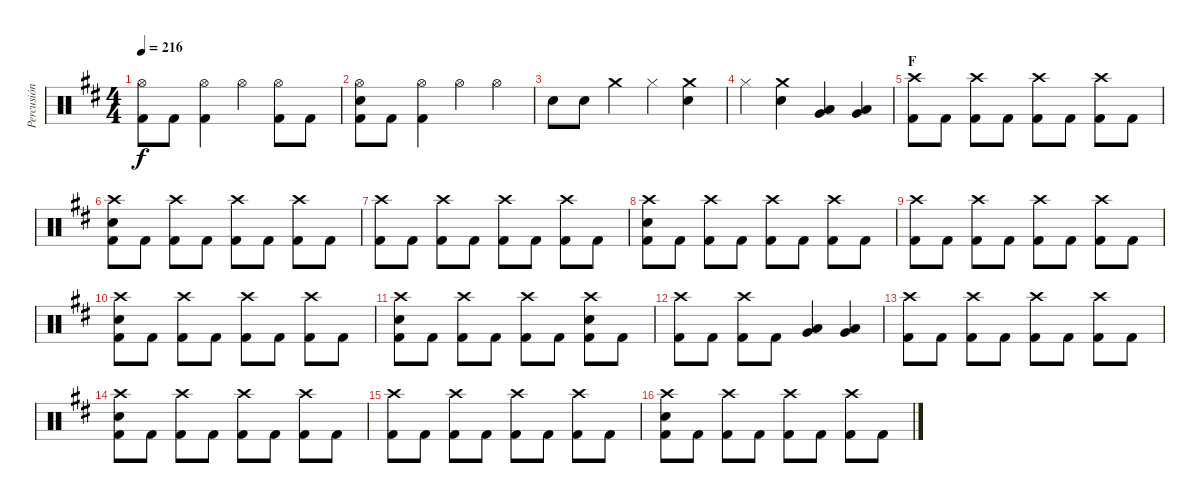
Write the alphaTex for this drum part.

\track ("Percusión" "Percusión") {instrument percussion}
\staff {score}
\articulation defaults
\ts (4 4)
\tempo 216
\clef neutral
\ks d
("Hi-Hat (open)" "Kick (hit) 2").8{dy f} "Kick (hit) 2".8 ("Hi-Hat (open)" "Kick (hit) 2").4 "Hi-Hat (open)".4 ("Hi-Hat (open)" "Kick (hit) 2").8 "Kick (hit) 2".8 |
("Hi-Hat (open)" "Electric Snare (hit)" "Kick (hit) 2").8 "Kick (hit) 2".8 ("Hi-Hat (open)" "Kick (hit) 2").4 "Hi-Hat (open)".4 "Hi-Hat (open)".4 |
"Electric Snare (hit)".8 "Electric Snare (hit)".8 "Crash medium (hit)".4 "Hi-Hat (closed)".4 ("Crash medium (hit)" "Electric Snare (hit)").4 |
"Hi-Hat (closed)".4 ("Crash medium (hit)" "Electric Snare (hit)").4 ("Low Tom (hit)" "Very Low Tom (hit)").4 ("Low Tom (hit)" "Very Low Tom (hit)").4 |
\section ("" "F")
("Crash high (hit)" "Kick (hit) 2").8 "Kick (hit) 2".8 ("Crash high (hit)" "Kick (hit) 2").8 "Kick (hit) 2".8 ("Crash high (hit)" "Kick (hit) 2").8 "Kick (hit) 2".8 ("Crash high (hit)" "Kick (hit) 2").8 "Kick (hit) 2".8 |
("Crash high (hit)" "Electric Snare (hit)" "Kick (hit) 2").8 "Kick (hit) 2".8 ("Crash high (hit)" "Kick (hit) 2").8 "Kick (hit) 2".8 ("Crash high (hit)" "Kick (hit) 2").8 "Kick (hit) 2".8 ("Crash high (hit)" "Kick (hit) 2").8 "Kick (hit) 2".8 |
("Crash high (hit)" "Kick (hit) 2").8 "Kick (hit) 2".8 ("Crash high (hit)" "Kick (hit) 2").8 "Kick (hit) 2".8 ("Crash high (hit)" "Kick (hit) 2").8 "Kick (hit) 2".8 ("Crash high (hit)" "Kick (hit) 2").8 "Kick (hit) 2".8 |
("Crash high (hit)" "Electric Snare (hit)" "Kick (hit) 2").8 "Kick (hit) 2".8 ("Crash high (hit)" "Kick (hit) 2").8 "Kick (hit) 2".8 ("Crash high (hit)" "Kick (hit) 2").8 "Kick (hit) 2".8 ("Crash high (hit)" "Kick (hit) 2").8 "Kick (hit) 2".8 |
("Crash high (hit)" "Kick (hit) 2").8 "Kick (hit) 2".8 ("Crash high (hit)" "Kick (hit) 2").8 "Kick (hit) 2".8 ("Crash high (hit)" "Kick (hit) 2").8 "Kick (hit) 2".8 ("Crash high (hit)" "Kick (hit) 2").8 "Kick (hit) 2".8 |
("Crash high (hit)" "Electric Snare (hit)" "Kick (hit) 2").8 "Kick (hit) 2".8 ("Crash high (hit)" "Kick (hit) 2").8 "Kick (hit) 2".8 ("Crash high (hit)" "Kick (hit) 2").8 "Kick (hit) 2".8 ("Crash high (hit)" "Kick (hit) 2").8 "Kick (hit) 2".8 |
("Crash high (hit)" "Electric Snare (hit)" "Kick (hit) 2").8 "Kick (hit) 2".8 ("Crash high (hit)" "Kick (hit) 2").8 "Kick (hit) 2".8 ("Crash high (hit)" "Kick (hit) 2").8 "Kick (hit) 2".8 ("Crash high (hit)" "Electric Snare (hit)" "Kick (hit) 2").8 "Kick (hit) 2".8 |
("Crash high (hit)" "Kick (hit) 2").8 "Kick (hit) 2".8 ("Crash high (hit)" "Kick (hit) 2").8 "Kick (hit) 2".8 ("Low Tom (hit)" "Very Low Tom (hit)").4 ("Low Tom (hit)" "Very Low Tom (hit)").4 |
("Crash high (hit)" "Kick (hit) 2").8 "Kick (hit) 2".8 ("Crash high (hit)" "Kick (hit) 2").8 "Kick (hit) 2".8 ("Crash high (hit)" "Kick (hit) 2").8 "Kick (hit) 2".8 ("Crash high (hit)" "Kick (hit) 2").8 "Kick (hit) 2".8 |
("Crash high (hit)" "Electric Snare (hit)" "Kick (hit) 2").8 "Kick (hit) 2".8 ("Crash high (hit)" "Kick (hit) 2").8 "Kick (hit) 2".8 ("Crash high (hit)" "Kick (hit) 2").8 "Kick (hit) 2".8 ("Crash high (hit)" "Kick (hit) 2").8 "Kick (hit) 2".8 |
("Crash high (hit)" "Kick (hit) 2").8 "Kick (hit) 2".8 ("Crash high (hit)" "Kick (hit) 2").8 "Kick (hit) 2".8 ("Crash high (hit)" "Kick (hit) 2").8 "Kick (hit) 2".8 ("Crash high (hit)" "Kick (hit) 2").8 "Kick (hit) 2".8 |
("Crash high (hit)" "Electric Snare (hit)" "Kick (hit) 2").8 "Kick (hit) 2".8 ("Crash high (hit)" "Kick (hit) 2").8 "Kick (hit) 2".8 ("Crash high (hit)" "Kick (hit) 2").8 "Kick (hit) 2".8 ("Crash high (hit)" "Kick (hit) 2").8 "Kick (hit) 2".8
